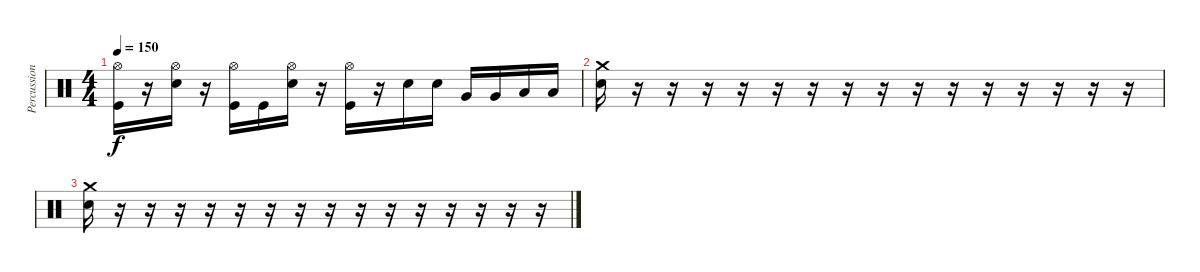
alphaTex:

\track ("Percussion" "Percussion") {instrument percussion}
\staff {score}
\articulation defaults
\ts (4 4)
\tempo 150
\clef neutral
\ks c
("Hi-Hat (open)" "Kick (hit)").16{dy f} r.16 ("Hi-Hat (open)" "Snare (hit) 2").16 r.16 ("Hi-Hat (open)" "Kick (hit)").16 "Kick (hit)".16 ("Hi-Hat (open)" "Snare (hit) 2").16 r.16 ("Hi-Hat (open)" "Kick (hit)").16 r.16 "Snare (hit) 2".16 "Snare (hit) 2".16 "Very Low Tom (hit)".16 "Very Low Tom (hit)".16 "Low Floor Tom (hit)".16 "Low Floor Tom (hit)".16 |
("Crash medium (hit)" "Snare (hit) 2").16 r.16 r.16 r.16 r.16 r.16 r.16 r.16 r.16 r.16 r.16 r.16 r.16 r.16 r.16 r.16 |
("Crash medium (hit)" "Snare (hit) 2").16 r.16 r.16 r.16 r.16 r.16 r.16 r.16 r.16 r.16 r.16 r.16 r.16 r.16 r.16 r.16
